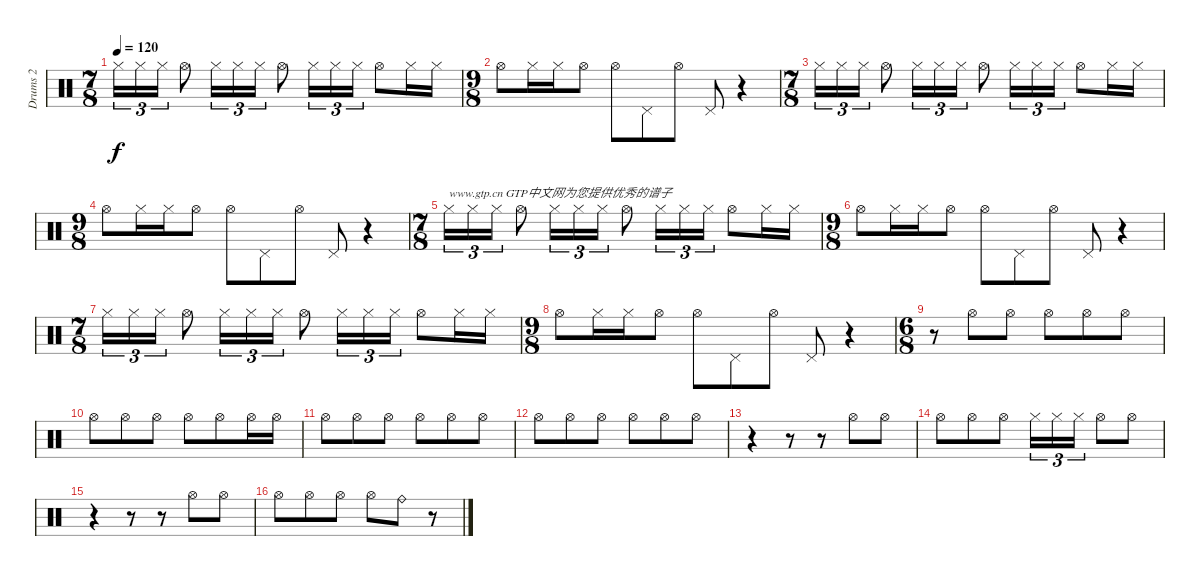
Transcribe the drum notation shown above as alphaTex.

\track ("Drums 2" "Drums 2") {instrument percussion}
\staff {score}
\articulation defaults
\ts (7 8)
\tempo 120
\clef neutral
\ks c "Hi-Hat (closed)".16{tu (3 2) dy f} "Hi-Hat (closed)".16{tu (3 2)} "Hi-Hat (closed)".16{tu (3 2)} "Hi-Hat (open)".8 "Hi-Hat (closed)".16{tu (3 2)} "Hi-Hat (closed)".16{tu (3 2)} "Hi-Hat (closed)".16{tu (3 2)} "Hi-Hat (open)".8 "Hi-Hat (closed)".16{tu (3 2)} "Hi-Hat (closed)".16{tu (3 2)} "Hi-Hat (closed)".16{tu (3 2)} "Hi-Hat (open)".8 "Hi-Hat (closed)".16 "Hi-Hat (closed)".16
|
\ts (9 8)
"Hi-Hat (open)".8 "Hi-Hat (closed)".16 "Hi-Hat (closed)".16 "Hi-Hat (open)".8 "Hi-Hat (open)".8 "Pedal Hi-Hat (hit)".8 "Hi-Hat (open)".8 "Pedal Hi-Hat (hit)".8 r.4 |
\ts (7 8)
"Hi-Hat (closed)".16{tu (3 2)} "Hi-Hat (closed)".16{tu (3 2)} "Hi-Hat (closed)".16{tu (3 2)} "Hi-Hat (open)".8 "Hi-Hat (closed)".16{tu (3 2)} "Hi-Hat (closed)".16{tu (3 2)} "Hi-Hat (closed)".16{tu (3 2)} "Hi-Hat (open)".8 "Hi-Hat (closed)".16{tu (3 2)} "Hi-Hat (closed)".16{tu (3 2)} "Hi-Hat (closed)".16{tu (3 2)} "Hi-Hat (open)".8 "Hi-Hat (closed)".16 "Hi-Hat (closed)".16 |
\ts (9 8)
"Hi-Hat (open)".8 "Hi-Hat (closed)".16 "Hi-Hat (closed)".16 "Hi-Hat (open)".8 "Hi-Hat (open)".8 "Pedal Hi-Hat (hit)".8 "Hi-Hat (open)".8 "Pedal Hi-Hat (hit)".8 r.4 |
\ts (7 8)
"Hi-Hat (closed)".16{tu (3 2) txt "www.gtp.cn GTP中文网为您提供优秀的谱子"} "Hi-Hat (closed)".16{tu (3 2)} "Hi-Hat (closed)".16{tu (3 2)} "Hi-Hat (open)".8 "Hi-Hat (closed)".16{tu (3 2)} "Hi-Hat (closed)".16{tu (3 2)} "Hi-Hat (closed)".16{tu (3 2)} "Hi-Hat (open)".8 "Hi-Hat (closed)".16{tu (3 2)} "Hi-Hat (closed)".16{tu (3 2)} "Hi-Hat (closed)".16{tu (3 2)} "Hi-Hat (open)".8 "Hi-Hat (closed)".16 "Hi-Hat (closed)".16 |
\ts (9 8)
"Hi-Hat (open)".8 "Hi-Hat (closed)".16 "Hi-Hat (closed)".16 "Hi-Hat (open)".8 "Hi-Hat (open)".8 "Pedal Hi-Hat (hit)".8 "Hi-Hat (open)".8 "Pedal Hi-Hat (hit)".8 r.4 |
\ts (7 8)
"Hi-Hat (closed)".16{tu (3 2)} "Hi-Hat (closed)".16{tu (3 2)} "Hi-Hat (closed)".16{tu (3 2)} "Hi-Hat (open)".8 "Hi-Hat (closed)".16{tu (3 2)} "Hi-Hat (closed)".16{tu (3 2)} "Hi-Hat (closed)".16{tu (3 2)} "Hi-Hat (open)".8 "Hi-Hat (closed)".16{tu (3 2)} "Hi-Hat (closed)".16{tu (3 2)} "Hi-Hat (closed)".16{tu (3 2)} "Hi-Hat (open)".8 "Hi-Hat (closed)".16 "Hi-Hat (closed)".16 |
\ts (9 8)
"Hi-Hat (open)".8 "Hi-Hat (closed)".16 "Hi-Hat (closed)".16 "Hi-Hat (open)".8 "Hi-Hat (open)".8 "Pedal Hi-Hat (hit)".8 "Hi-Hat (open)".8 "Pedal Hi-Hat (hit)".8 r.4 |
\ts (6 8)
r.8 "Hi-Hat (open)".8 "Hi-Hat (open)".8 "Hi-Hat (open)".8 "Hi-Hat (open)".8 "Hi-Hat (open)".8 |
"Hi-Hat (open)".8 "Hi-Hat (open)".8 "Hi-Hat (open)".8 "Hi-Hat (open)".8 "Hi-Hat (open)".8 "Hi-Hat (open)".16 "Hi-Hat (open)".16 |
"Hi-Hat (open)".8 "Hi-Hat (open)".8 "Hi-Hat (open)".8 "Hi-Hat (open)".8 "Hi-Hat (open)".8 "Hi-Hat (open)".8 |
"Hi-Hat (open)".8 "Hi-Hat (open)".8 "Hi-Hat (open)".8 "Hi-Hat (open)".8 "Hi-Hat (open)".8 "Hi-Hat (open)".8 |
r.4 r.8 r.8 "Hi-Hat (open)".8 "Hi-Hat (open)".8 |
"Hi-Hat (open)".8 "Hi-Hat (open)".8 "Hi-Hat (open)".8 "Hi-Hat (closed)".16{tu (3 2)} "Hi-Hat (closed)".16{tu (3 2)} "Hi-Hat (closed)".16{tu (3 2)} "Hi-Hat (open)".8 "Hi-Hat (open)".8 |
r.4 r.8 r.8 "Hi-Hat (open)".8 "Hi-Hat (open)".8 |
"Hi-Hat (open)".8 "Hi-Hat (open)".8 "Hi-Hat (open)".8 "Hi-Hat (open)".8 "Ride (bell)".8 r.8
